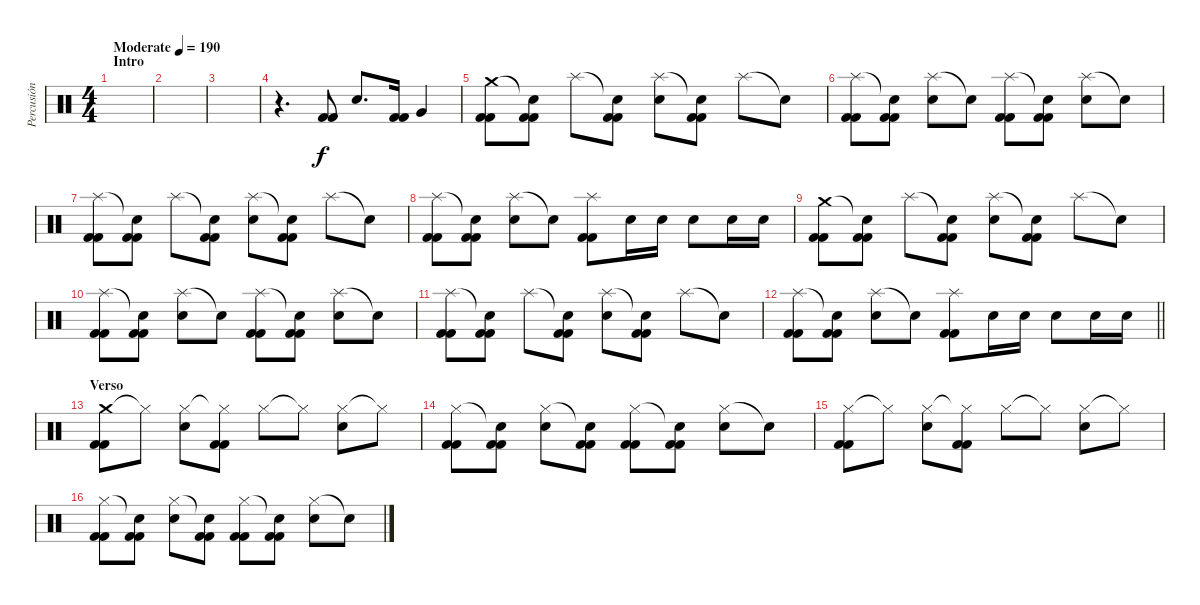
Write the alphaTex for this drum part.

\track ("Percusión" "Percusión") {instrument percussion}
\staff {score}
\articulation defaults
\ts (4 4)
\section ("" "Intro")
\tempo (190 "Moderate")
\clef neutral
\ks c
|
|
|
r.4{d} ("Kick (hit) 2" "Kick (hit) 2").8 "Electric Snare (hit)".8{d} ("Kick (hit) 2" "Kick (hit) 2").16 "Very Low Tom (hit)".4 |
("Crash medium (hit)" "Kick (hit) 2" "Kick (hit) 2").8 ("Snare (hit)"{t} "Kick (hit) 2" "Kick (hit) 2").8 "Splash (hit)".8 ("Snare (hit)"{t} "Kick (hit) 2" "Kick (hit) 2").8 ("Splash (hit)" "Electric Snare (hit)").8 ("Snare (hit)"{t} "Kick (hit) 2" "Kick (hit) 2").8 "Splash (hit)".8 "Snare (hit)"{t}.8 |
("Splash (hit)" "Kick (hit) 2" "Kick (hit) 2").8 ("Snare (hit)"{t} "Kick (hit) 2" "Kick (hit) 2").8 ("Splash (hit)" "Electric Snare (hit)").8 "Snare (hit)"{t}.8 ("Splash (hit)" "Kick (hit) 2" "Kick (hit) 2").8 ("Snare (hit)"{t} "Kick (hit) 2" "Kick (hit) 2").8 ("Splash (hit)" "Electric Snare (hit)").8 "Snare (hit)"{t}.8 |
("Splash (hit)" "Kick (hit) 2" "Kick (hit) 2").8 ("Snare (hit)"{t} "Kick (hit) 2" "Kick (hit) 2").8 "Splash (hit)".8 ("Snare (hit)"{t} "Kick (hit) 2" "Kick (hit) 2").8 ("Splash (hit)" "Electric Snare (hit)").8 ("Snare (hit)"{t} "Kick (hit) 2" "Kick (hit) 2").8 "Splash (hit)".8 "Snare (hit)"{t}.8 |
("Splash (hit)" "Kick (hit) 2" "Kick (hit) 2").8 ("Snare (hit)"{t} "Kick (hit) 2" "Kick (hit) 2").8 ("Splash (hit)" "Electric Snare (hit)").8 "Snare (hit)"{t}.8 ("Splash (hit)" "Kick (hit) 2" "Kick (hit) 2").8 "Electric Snare (hit)".16 "Electric Snare (hit)".16 "Electric Snare (hit)".8 "Electric Snare (hit)".16 "Electric Snare (hit)".16 |
("Crash medium (hit)" "Kick (hit) 2" "Kick (hit) 2").8 ("Snare (hit)"{t} "Kick (hit) 2" "Kick (hit) 2").8 "Splash (hit)".8 ("Snare (hit)"{t} "Kick (hit) 2" "Kick (hit) 2").8 ("Splash (hit)" "Electric Snare (hit)").8 ("Snare (hit)"{t} "Kick (hit) 2" "Kick (hit) 2").8 "Splash (hit)".8 "Snare (hit)"{t}.8 |
("Splash (hit)" "Kick (hit) 2" "Kick (hit) 2").8 ("Snare (hit)"{t} "Kick (hit) 2" "Kick (hit) 2").8 ("Splash (hit)" "Electric Snare (hit)").8 "Snare (hit)"{t}.8 ("Splash (hit)" "Kick (hit) 2" "Kick (hit) 2").8 ("Snare (hit)"{t} "Kick (hit) 2" "Kick (hit) 2").8 ("Splash (hit)" "Electric Snare (hit)").8 "Snare (hit)"{t}.8 |
("Splash (hit)" "Kick (hit) 2" "Kick (hit) 2").8 ("Snare (hit)"{t} "Kick (hit) 2" "Kick (hit) 2").8 "Splash (hit)".8 ("Snare (hit)"{t} "Kick (hit) 2" "Kick (hit) 2").8 ("Splash (hit)" "Electric Snare (hit)").8 ("Snare (hit)"{t} "Kick (hit) 2" "Kick (hit) 2").8 "Splash (hit)".8 "Snare (hit)"{t}.8 |
\barLineRight lightlight
("Splash (hit)" "Kick (hit) 2" "Kick (hit) 2").8 ("Snare (hit)"{t} "Kick (hit) 2" "Kick (hit) 2").8 ("Splash (hit)" "Electric Snare (hit)").8 "Snare (hit)"{t}.8 ("Splash (hit)" "Kick (hit) 2" "Kick (hit) 2").8 "Electric Snare (hit)".16 "Electric Snare (hit)".16 "Electric Snare (hit)".8 "Electric Snare (hit)".16 "Electric Snare (hit)".16 |
\section ("" "Verso")
("Crash medium (hit)" "Kick (hit) 2" "Kick (hit) 2").8 "Hi-Hat (closed)"{t}.8 ("Hi-Hat (closed)" "Electric Snare (hit)").8 ("Hi-Hat (closed)"{t} "Kick (hit) 2" "Kick (hit) 2").8 "Hi-Hat (closed)".8 "Hi-Hat (closed)"{t}.8 ("Hi-Hat (closed)" "Electric Snare (hit)").8 "Hi-Hat (closed)"{t}.8 |
("Hi-Hat (closed)" "Kick (hit) 2" "Kick (hit) 2").8 ("Snare (hit)"{t} "Kick (hit) 2" "Kick (hit) 2").8 ("Hi-Hat (closed)" "Electric Snare (hit)").8 ("Snare (hit)"{t} "Kick (hit) 2" "Kick (hit) 2").8 ("Hi-Hat (closed)" "Kick (hit) 2" "Kick (hit) 2").8 ("Snare (hit)"{t} "Kick (hit) 2" "Kick (hit) 2").8 ("Hi-Hat (closed)" "Electric Snare (hit)").8 "Snare (hit)"{t}.8 |
("Hi-Hat (closed)" "Kick (hit) 2" "Kick (hit) 2").8 "Hi-Hat (closed)"{t}.8 ("Hi-Hat (closed)" "Electric Snare (hit)").8 ("Hi-Hat (closed)"{t} "Kick (hit) 2" "Kick (hit) 2").8 "Hi-Hat (closed)".8 "Hi-Hat (closed)"{t}.8 ("Hi-Hat (closed)" "Electric Snare (hit)").8 "Hi-Hat (closed)"{t}.8 |
("Hi-Hat (closed)" "Kick (hit) 2" "Kick (hit) 2").8 ("Snare (hit)"{t} "Kick (hit) 2" "Kick (hit) 2").8 ("Hi-Hat (closed)" "Electric Snare (hit)").8 ("Snare (hit)"{t} "Kick (hit) 2" "Kick (hit) 2").8 ("Hi-Hat (closed)" "Kick (hit) 2" "Kick (hit) 2").8 ("Snare (hit)"{t} "Kick (hit) 2" "Kick (hit) 2").8 ("Hi-Hat (closed)" "Electric Snare (hit)").8 "Snare (hit)"{t}.8
